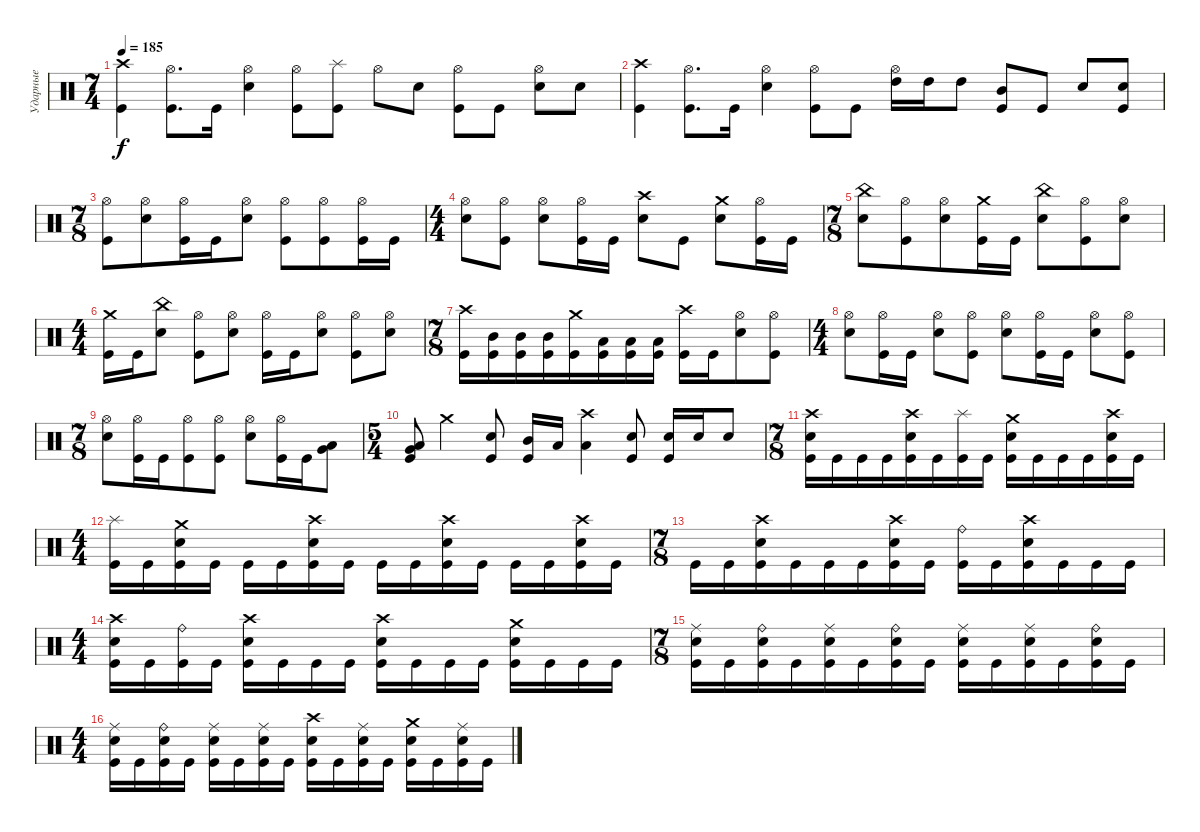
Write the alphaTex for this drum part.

\track ("Ударные" "Ударные") {instrument percussion}
\staff {score}
\articulation defaults
\ts (7 4)
\tempo 185
\clef neutral
\ks c
("Crash high (hit)" "Kick (hit)").4{dy f} ("Hi-Hat (open)" "Kick (hit)").8{d} "Kick (hit)".16 ("Hi-Hat (open)" "Snare (hit) 2").4 ("Hi-Hat (open)" "Kick (hit)").8 ("Splash (hit)" "Kick (hit)").8 "Hi-Hat (open)".8 "Snare (hit) 2".8 ("Hi-Hat (open)" "Kick (hit)").8 "Kick (hit)".8 ("Hi-Hat (open)" "Snare (hit) 2").8 "Snare (hit) 2".8 |
("Crash high (hit)" "Kick (hit)").4 ("Hi-Hat (open)" "Kick (hit)").8{d} "Kick (hit)".16 ("Hi-Hat (open)" "Snare (hit) 2").4 ("Hi-Hat (open)" "Kick (hit)").8 "Kick (hit)".8 ("Hi-Hat (open)" "High Tom (hit)").16 "High Tom (hit)".16 "High Tom (hit)".8 ("Mid Tom (hit)" "Kick (hit)").8 "Kick (hit)".8 "Snare (hit) 2".8 ("Snare (hit) 2" "Kick (hit)").8 |
\ts (7 8)
("Hi-Hat (open)" "Kick (hit)").8 ("Hi-Hat (open)" "Snare (hit) 2").8 ("Hi-Hat (open)" "Kick (hit)").16 "Kick (hit)".16 ("Hi-Hat (open)" "Snare (hit) 2").8 ("Hi-Hat (open)" "Kick (hit)").8 ("Hi-Hat (open)" "Kick (hit)").8 ("Hi-Hat (open)" "Kick (hit)").16 "Kick (hit)".16 |
\ts (4 4)
("Hi-Hat (open)" "Snare (hit) 2").8 ("Hi-Hat (open)" "Kick (hit)").8 ("Hi-Hat (open)" "Snare (hit) 2").8 ("Hi-Hat (open)" "Kick (hit)").16 "Kick (hit)".16 ("Crash high (hit)" "Snare (hit) 2").8 "Kick (hit)".8 ("Crash medium (hit)" "Snare (hit) 2").8 ("Hi-Hat (open)" "Kick (hit)").16 "Kick (hit)".16 |
\ts (7 8)
("China (hit)" "Snare (hit) 2").8 ("Hi-Hat (open)" "Kick (hit)").8 ("Hi-Hat (open)" "Snare (hit) 2").8 ("Crash medium (hit)" "Kick (hit)").16 "Kick (hit)".16 ("China (hit)" "Snare (hit) 2").8 ("Hi-Hat (open)" "Kick (hit)").8 ("Hi-Hat (open)" "Snare (hit) 2").8 |
\ts (4 4)
("Crash medium (hit)" "Kick (hit)").16 "Kick (hit)".16 ("China (hit)" "Snare (hit) 2").8 ("Hi-Hat (open)" "Kick (hit)").8 ("Hi-Hat (open)" "Snare (hit) 2").8 ("Hi-Hat (open)" "Kick (hit)").16 "Kick (hit)".16 ("Hi-Hat (open)" "Snare (hit) 2").8 ("Hi-Hat (open)" "Kick (hit)").8 ("Hi-Hat (open)" "Snare (hit) 2").8 |
\ts (7 8)
("Crash high (hit)" "Kick (hit)").16 ("Mid Tom (hit)" "Kick (hit)").16 ("Mid Tom (hit)" "Kick (hit)").16 ("Mid Tom (hit)" "Kick (hit)").16 ("Crash medium (hit)" "Kick (hit)").16 ("Low Tom (hit)" "Kick (hit)").16 ("Low Tom (hit)" "Kick (hit)").16 ("Low Tom (hit)" "Kick (hit)").16 ("Crash high (hit)" "Kick (hit)").16 "Kick (hit)".16 ("Hi-Hat (open)" "Snare (hit) 2").8 ("Hi-Hat (open)" "Kick (hit)").8 |
\ts (4 4)
("Hi-Hat (open)" "Snare (hit) 2").8 ("Hi-Hat (open)" "Kick (hit)").16 "Kick (hit)".16 ("Hi-Hat (open)" "Snare (hit) 2").8 ("Hi-Hat (open)" "Kick (hit)").8 ("Hi-Hat (open)" "Snare (hit) 2").8 ("Hi-Hat (open)" "Kick (hit)").16 "Kick (hit)".16 ("Hi-Hat (open)" "Snare (hit) 2").8 ("Hi-Hat (open)" "Kick (hit)").8 |
\ts (7 8)
("Hi-Hat (open)" "Snare (hit) 2").8 ("Hi-Hat (open)" "Kick (hit)").16 "Kick (hit)".16 ("Hi-Hat (open)" "Kick (hit)").8 ("Hi-Hat (open)" "Kick (hit)").8 ("Hi-Hat (open)" "Snare (hit) 2").8 ("Hi-Hat (open)" "Kick (hit)").16 "Kick (hit)".16 ("Low Tom (hit)" "Very Low Tom (hit)").8 |
\ts (5 4)
("Low Tom (hit)" "Very Low Tom (hit)" "Kick (hit)").8 "Crash medium (hit)".4 ("Snare (hit) 2" "Kick (hit)").8 ("Mid Tom (hit)" "Kick (hit)").16 "Low Tom (hit)".16 ("Crash high (hit)" "Low Tom (hit)").4 ("Snare (hit) 2" "Kick (hit)").8 ("Snare (hit) 2" "Kick (hit)").16 "Snare (hit) 2".16 "Snare (hit) 2".8 |
\ts (7 8)
("Crash high (hit)" "Snare (hit) 2" "Kick (hit)").16 "Kick (hit)".16 "Kick (hit)".16 "Kick (hit)".16 ("Crash high (hit)" "Snare (hit) 2" "Kick (hit)").16 "Kick (hit)".16 ("Splash (hit)" "Kick (hit)").16 "Kick (hit)".16 ("Crash medium (hit)" "Snare (hit) 2" "Kick (hit)").16 "Kick (hit)".16 "Kick (hit)".16 "Kick (hit)".16 ("Crash high (hit)" "Snare (hit) 2" "Kick (hit)").16 "Kick (hit)".16 |
\ts (4 4)
("Splash (hit)" "Kick (hit)").16 "Kick (hit)".16 ("Crash medium (hit)" "Snare (hit) 2" "Kick (hit)").16 "Kick (hit)".16 "Kick (hit)".16 "Kick (hit)".16 ("Crash high (hit)" "Snare (hit) 2" "Kick (hit)").16 "Kick (hit)".16 "Kick (hit)".16 "Kick (hit)".16 ("Crash high (hit)" "Snare (hit) 2" "Kick (hit)").16 "Kick (hit)".16 "Kick (hit)".16 "Kick (hit)".16 ("Crash high (hit)" "Snare (hit) 2" "Kick (hit)").16 "Kick (hit)".16 |
\ts (7 8)
"Kick (hit)".16 "Kick (hit)".16 ("Crash high (hit)" "Snare (hit) 2" "Kick (hit)").16 "Kick (hit)".16 "Kick (hit)".16 "Kick (hit)".16 ("Crash high (hit)" "Snare (hit) 2" "Kick (hit)").16 "Kick (hit)".16 ("Ride (bell)" "Kick (hit)").16 "Kick (hit)".16 ("Crash high (hit)" "Snare (hit) 2" "Kick (hit)").16 "Kick (hit)".16 "Kick (hit)".16 "Kick (hit)".16 |
\ts (4 4)
("Crash high (hit)" "Snare (hit) 2" "Kick (hit)").16 "Kick (hit)".16 ("Ride (bell)" "Kick (hit)").16 "Kick (hit)".16 ("Crash high (hit)" "Snare (hit) 2" "Kick (hit)").16 "Kick (hit)".16 "Kick (hit)".16 "Kick (hit)".16 ("Crash high (hit)" "Snare (hit) 2" "Kick (hit)").16 "Kick (hit)".16 "Kick (hit)".16 "Kick (hit)".16 ("Crash medium (hit)" "Snare (hit) 2" "Kick (hit)").16 "Kick (hit)".16 "Kick (hit)".16 "Kick (hit)".16 |
\ts (7 8)
("Ride (middle)" "Snare (hit) 2" "Kick (hit)").16 "Kick (hit)".16 ("Ride (bell)" "Snare (hit) 2" "Kick (hit)").16 "Kick (hit)".16 ("Ride (middle)" "Snare (hit) 2" "Kick (hit)").16 "Kick (hit)".16 ("Ride (bell)" "Snare (hit) 2" "Kick (hit)").16 "Kick (hit)".16 ("Ride (middle)" "Snare (hit) 2" "Kick (hit)").16 "Kick (hit)".16 ("Ride (middle)" "Snare (hit) 2" "Kick (hit)").16 "Kick (hit)".16 ("Ride (bell)" "Snare (hit) 2" "Kick (hit)").16 "Kick (hit)".16 |
\ts (4 4)
("Ride (middle)" "Snare (hit) 2" "Kick (hit)").16 "Kick (hit)".16 ("Ride (bell)" "Snare (hit) 2" "Kick (hit)").16 "Kick (hit)".16 ("Ride (middle)" "Snare (hit) 2" "Kick (hit)").16 "Kick (hit)".16 ("Ride (middle)" "Snare (hit) 2" "Kick (hit)").16 "Kick (hit)".16 ("Crash high (hit)" "Snare (hit) 2" "Kick (hit)").16 "Kick (hit)".16 ("Ride (middle)" "Snare (hit) 2" "Kick (hit)").16 "Kick (hit)".16 ("Crash medium (hit)" "Snare (hit) 2" "Kick (hit)").16 "Kick (hit)".16 ("Ride (middle)" "Snare (hit) 2" "Kick (hit)").16 "Kick (hit)".16
